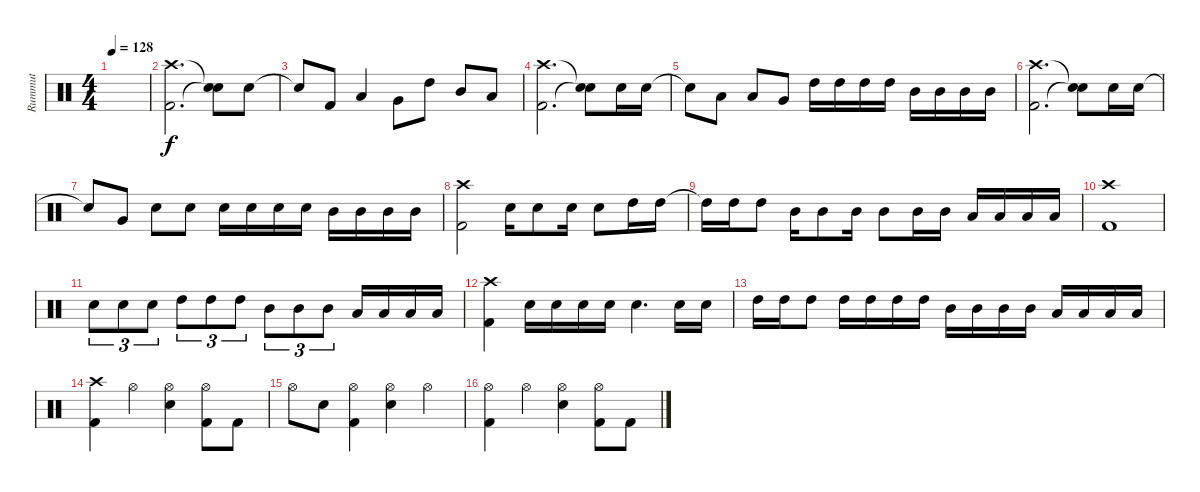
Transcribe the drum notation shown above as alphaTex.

\track ("Rummut" "Rummut") {instrument percussion}
\staff {score}
\articulation defaults
\ts (4 4)
\tempo 128
\clef neutral
\ks aminor
|
("Crash high (hit)" "Kick (hit) 2").2{d} ("Snare (hit)"{t} "Snare (hit)"{t}).8 "Electric Snare (hit)".8 |
"Snare (hit)"{t}.8 "Kick (hit) 2".8 "Low Tom (hit)".4 "Very Low Tom (hit)".8 "High Tom (hit)".8 "Mid Tom (hit)".8 "Low Tom (hit)".8 |
("Crash high (hit)" "Kick (hit) 2").2{d} ("Snare (hit)"{t} "Snare (hit)"{t}).8 "Electric Snare (hit)".16 "Electric Snare (hit)".16 |
"Snare (hit)"{t}.8 "Low Tom (hit)".8 "Low Tom (hit)".8 "Very Low Tom (hit)".8 "High Tom (hit)".16 "High Tom (hit)".16 "High Tom (hit)".16 "High Tom (hit)".16 "Mid Tom (hit)".16 "Mid Tom (hit)".16 "Mid Tom (hit)".16 "Mid Tom (hit)".16 |
("Crash high (hit)" "Kick (hit) 2").2{d} ("Snare (hit)"{t} "Snare (hit)"{t}).8 "Electric Snare (hit)".16 "Electric Snare (hit)".16 |
"Snare (hit)"{t}.8 "Very Low Tom (hit)".8 "Electric Snare (hit)".8 "Electric Snare (hit)".8 "Electric Snare (hit)".16 "Electric Snare (hit)".16 "Electric Snare (hit)".16 "Electric Snare (hit)".16 "Mid Tom (hit)".16 "Mid Tom (hit)".16 "Mid Tom (hit)".16 "Mid Tom (hit)".16 |
("Crash high (hit)" "Kick (hit) 2").2 "Electric Snare (hit)".16 "Electric Snare (hit)".8 "Electric Snare (hit)".16 "Electric Snare (hit)".8 "High Tom (hit)".16 "High Tom (hit)".16 |
"High Tom (hit)"{t}.16 "High Tom (hit)".16 "High Tom (hit)".8 "Mid Tom (hit)".16 "Mid Tom (hit)".8 "Mid Tom (hit)".16 "Mid Tom (hit)".8 "Mid Tom (hit)".16 "Mid Tom (hit)".16 "Low Tom (hit)".16 "Low Tom (hit)".16 "Low Tom (hit)".16 "Low Tom (hit)".16 |
("Crash high (hit)" "Kick (hit) 2").1 |
"Electric Snare (hit)".8{tu (3 2)} "Electric Snare (hit)".8{tu (3 2)} "Electric Snare (hit)".8{tu (3 2)} "High Tom (hit)".8{tu (3 2)} "High Tom (hit)".8{tu (3 2)} "High Tom (hit)".8{tu (3 2)} "Mid Tom (hit)".8{tu (3 2)} "Mid Tom (hit)".8{tu (3 2)} "Mid Tom (hit)".8{tu (3 2)} "Low Tom (hit)".16 "Low Tom (hit)".16 "Low Tom (hit)".16 "Low Tom (hit)".16 |
("Crash high (hit)" "Kick (hit) 2").4 "Electric Snare (hit)".16 "Electric Snare (hit)".16 "Electric Snare (hit)".16 "Electric Snare (hit)".16 "Electric Snare (hit)".4{d} "Electric Snare (hit)".16 "Electric Snare (hit)".16 |
"High Tom (hit)".16 "High Tom (hit)".16 "High Tom (hit)".8 "High Tom (hit)".16 "High Tom (hit)".16 "High Tom (hit)".16 "High Tom (hit)".16 "Mid Tom (hit)".16 "Mid Tom (hit)".16 "Mid Tom (hit)".16 "Mid Tom (hit)".16 "Low Tom (hit)".16 "Low Tom (hit)".16 "Low Tom (hit)".16 "Low Tom (hit)".16 |
("Crash high (hit)" "Kick (hit) 2").4 "Hi-Hat (open)".4 ("Hi-Hat (open)" "Electric Snare (hit)").4 ("Hi-Hat (open)" "Kick (hit) 2").8 "Kick (hit) 2".8 |
"Hi-Hat (open)".8 "Electric Snare (hit)".8 ("Hi-Hat (open)" "Kick (hit) 2").4 ("Hi-Hat (open)" "Electric Snare (hit)").4 "Hi-Hat (open)".4 |
("Hi-Hat (open)" "Kick (hit) 2").4 "Hi-Hat (open)".4 ("Hi-Hat (open)" "Electric Snare (hit)").4 ("Hi-Hat (open)" "Kick (hit) 2").8 "Kick (hit) 2".8
